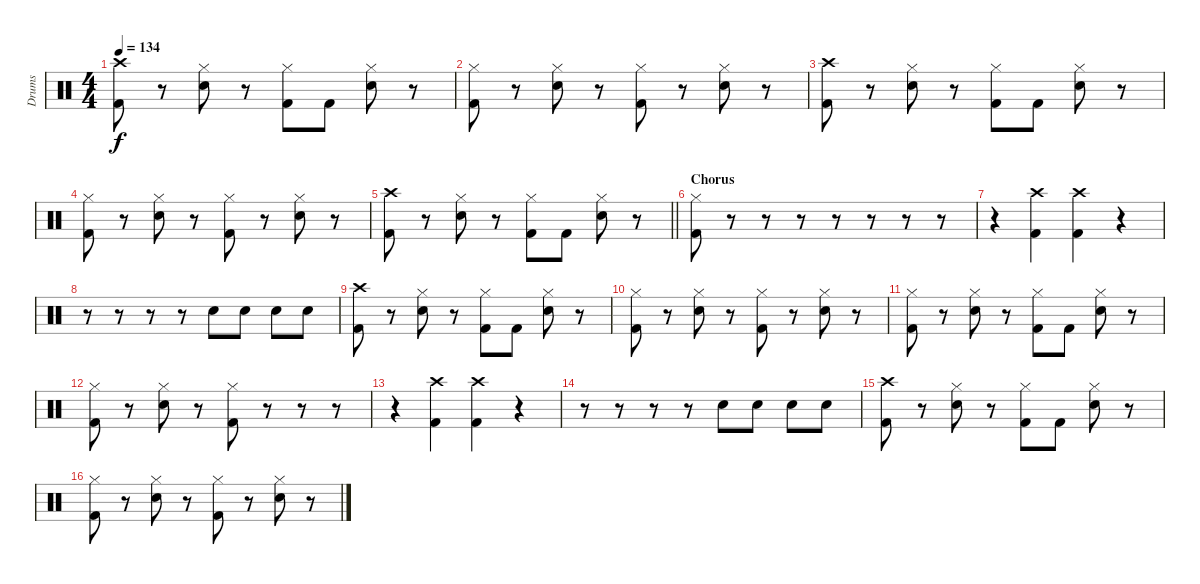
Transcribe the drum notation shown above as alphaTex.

\track ("Drums" "Drums") {instrument percussion}
\staff {score}
\articulation defaults
\ts (4 4)
\tempo 134
\clef neutral
\ks c
("Crash high (hit)" "Kick (hit) 2").8{dy f} r.8 ("Hi-Hat (closed)" "Snare (hit) 2").8 r.8 ("Hi-Hat (closed)" "Kick (hit) 2").8 "Kick (hit) 2".8 ("Hi-Hat (closed)" "Snare (hit) 2").8 r.8 |
("Hi-Hat (closed)" "Kick (hit) 2").8 r.8 ("Hi-Hat (closed)" "Snare (hit) 2").8 r.8 ("Hi-Hat (closed)" "Kick (hit) 2").8 r.8 ("Hi-Hat (closed)" "Snare (hit) 2").8 r.8 |
("Crash high (hit)" "Kick (hit) 2").8 r.8 ("Hi-Hat (closed)" "Snare (hit) 2").8 r.8 ("Hi-Hat (closed)" "Kick (hit) 2").8 "Kick (hit) 2".8 ("Hi-Hat (closed)" "Snare (hit) 2").8 r.8 |
("Hi-Hat (closed)" "Kick (hit) 2").8 r.8 ("Hi-Hat (closed)" "Snare (hit) 2").8 r.8 ("Hi-Hat (closed)" "Kick (hit) 2").8 r.8 ("Hi-Hat (closed)" "Snare (hit) 2").8 r.8 |
\barLineRight lightlight
("Crash high (hit)" "Kick (hit) 2").8 r.8 ("Hi-Hat (closed)" "Snare (hit) 2").8 r.8 ("Hi-Hat (closed)" "Kick (hit) 2").8 "Kick (hit) 2".8 ("Hi-Hat (closed)" "Snare (hit) 2").8 r.8 |
\section ("" "Chorus")
("Hi-Hat (closed)" "Kick (hit) 2").8 r.8 r.8 r.8 r.8 r.8 r.8 r.8 |
r.4 ("Crash high (hit)" "Kick (hit) 2").4 ("Crash high (hit)" "Kick (hit) 2").4 r.4 |
r.8 r.8 r.8 r.8 "Snare (hit) 2".8 "Snare (hit) 2".8 "Snare (hit) 2".8 "Snare (hit) 2".8 |
("Crash high (hit)" "Kick (hit) 2").8 r.8 ("Hi-Hat (closed)" "Snare (hit) 2").8 r.8 ("Hi-Hat (closed)" "Kick (hit) 2").8 "Kick (hit) 2".8 ("Hi-Hat (closed)" "Snare (hit) 2").8 r.8 |
("Hi-Hat (closed)" "Kick (hit) 2").8 r.8 ("Hi-Hat (closed)" "Snare (hit) 2").8 r.8 ("Hi-Hat (closed)" "Kick (hit) 2").8 r.8 ("Hi-Hat (closed)" "Snare (hit) 2").8 r.8 |
("Hi-Hat (closed)" "Kick (hit) 2").8 r.8 ("Hi-Hat (closed)" "Snare (hit) 2").8 r.8 ("Hi-Hat (closed)" "Kick (hit) 2").8 "Kick (hit) 2".8 ("Hi-Hat (closed)" "Snare (hit) 2").8 r.8 |
("Hi-Hat (closed)" "Kick (hit) 2").8 r.8 ("Hi-Hat (closed)" "Snare (hit) 2").8 r.8 ("Hi-Hat (closed)" "Kick (hit) 2").8 r.8 r.8 r.8 |
r.4 ("Crash high (hit)" "Kick (hit) 2").4 ("Crash high (hit)" "Kick (hit) 2").4 r.4 |
r.8 r.8 r.8 r.8 "Snare (hit) 2".8 "Snare (hit) 2".8 "Snare (hit) 2".8 "Snare (hit) 2".8 |
("Crash high (hit)" "Kick (hit) 2").8 r.8 ("Hi-Hat (closed)" "Snare (hit) 2").8 r.8 ("Hi-Hat (closed)" "Kick (hit) 2").8 "Kick (hit) 2".8 ("Hi-Hat (closed)" "Snare (hit) 2").8 r.8 |
("Hi-Hat (closed)" "Kick (hit) 2").8 r.8 ("Hi-Hat (closed)" "Snare (hit) 2").8 r.8 ("Hi-Hat (closed)" "Kick (hit) 2").8 r.8 ("Hi-Hat (closed)" "Snare (hit) 2").8 r.8
